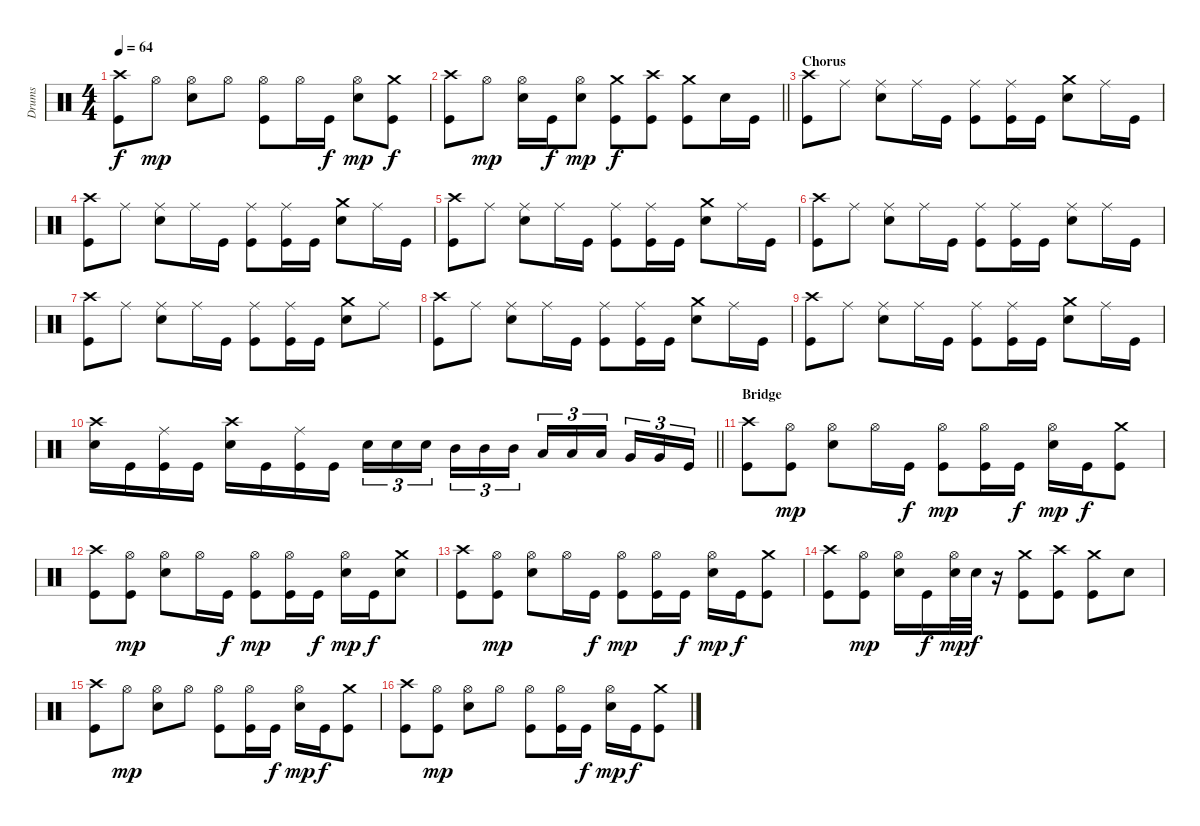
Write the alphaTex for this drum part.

\track ("Drums" "Drums") {instrument percussion}
\staff {score}
\articulation defaults
\ts (4 4)
\tempo 64
\clef neutral
\ks c
("Crash high (hit)" "Kick (hit)").8{dy f} "Hi-Hat (open)".8{dy mp} ("Hi-Hat (open)" "Snare (hit) 2").8 "Hi-Hat (open)".8 ("Hi-Hat (open)" "Kick (hit)").8 "Hi-Hat (open)".16 "Kick (hit)".16{dy f} ("Hi-Hat (open)" "Snare (hit) 2").8{dy mp} ("Crash medium (hit)" "Kick (hit)").8{dy f} |
\barLineRight lightlight
("Crash high (hit)" "Kick (hit)").8 "Hi-Hat (open)".8{dy mp} ("Hi-Hat (open)" "Snare (hit) 2").16 "Kick (hit)".16{dy f} ("Hi-Hat (open)" "Snare (hit) 2").8{dy mp} ("Crash medium (hit)" "Kick (hit)").8{dy f} ("Crash high (hit)" "Kick (hit)").8 ("Crash medium (hit)" "Kick (hit)").8 "Snare (hit) 2".16 "Kick (hit)".16 |
\section ("" "Chorus")
("Crash high (hit)" "Kick (hit)").8 "Ride (middle)".8 ("Ride (middle)" "Snare (hit) 2").8 "Ride (middle)".16 "Kick (hit)".16 ("Ride (middle)" "Kick (hit)").8 ("Ride (middle)" "Kick (hit)").16 "Kick (hit)".16 ("Crash medium (hit)" "Snare (hit) 2").8 "Ride (middle)".16 "Kick (hit)".16 |
("Crash high (hit)" "Kick (hit)").8 "Ride (middle)".8 ("Ride (middle)" "Snare (hit) 2").8 "Ride (middle)".16 "Kick (hit)".16 ("Ride (middle)" "Kick (hit)").8 ("Ride (middle)" "Kick (hit)").16 "Kick (hit)".16 ("Crash medium (hit)" "Snare (hit) 2").8 "Ride (middle)".16 "Kick (hit)".16 |
("Crash high (hit)" "Kick (hit)").8 "Ride (middle)".8 ("Ride (middle)" "Snare (hit) 2").8 "Ride (middle)".16 "Kick (hit)".16 ("Ride (middle)" "Kick (hit)").8 ("Ride (middle)" "Kick (hit)").16 "Kick (hit)".16 ("Crash medium (hit)" "Snare (hit) 2").8 "Ride (middle)".16 "Kick (hit)".16 |
("Crash high (hit)" "Kick (hit)").8 "Ride (middle)".8 ("Ride (middle)" "Snare (hit) 2").8 "Ride (middle)".16 "Kick (hit)".16 ("Ride (middle)" "Kick (hit)").8 ("Ride (middle)" "Kick (hit)").16 "Kick (hit)".16 ("Ride (middle)" "Snare (hit) 2").8 "Ride (middle)".16 "Kick (hit)".16 |
("Crash high (hit)" "Kick (hit)").8 "Ride (middle)".8 ("Ride (middle)" "Snare (hit) 2").8 "Ride (middle)".16 "Kick (hit)".16 ("Ride (middle)" "Kick (hit)").8 ("Ride (middle)" "Kick (hit)").16 "Kick (hit)".16 ("Crash medium (hit)" "Snare (hit) 2").8 "Ride (middle)".8 |
("Crash high (hit)" "Kick (hit)").8 "Ride (middle)".8 ("Ride (middle)" "Snare (hit) 2").8 "Ride (middle)".16 "Kick (hit)".16 ("Ride (middle)" "Kick (hit)").8 ("Ride (middle)" "Kick (hit)").16 "Kick (hit)".16 ("Crash medium (hit)" "Snare (hit) 2").8 "Ride (middle)".16 "Kick (hit)".16 |
("Crash high (hit)" "Kick (hit)").8 "Ride (middle)".8 ("Ride (middle)" "Snare (hit) 2").8 "Ride (middle)".16 "Kick (hit)".16 ("Ride (middle)" "Kick (hit)").8 ("Ride (middle)" "Kick (hit)").16 "Kick (hit)".16 ("Crash medium (hit)" "Snare (hit) 2").8 "Ride (middle)".16 "Kick (hit)".16 |
\barLineRight lightlight
("Crash high (hit)" "Snare (hit) 2").16 "Kick (hit)".16 ("Ride (middle)" "Kick (hit)").16 "Kick (hit)".16 ("Crash high (hit)" "Snare (hit) 2").16 "Kick (hit)".16 ("Ride (middle)" "Kick (hit)").16 "Kick (hit)".16 "Snare (hit) 2".16{tu (3 2)} "Snare (hit) 2".16{tu (3 2)} "Snare (hit) 2".16{tu (3 2)} "Mid Tom (hit)".16{tu (3 2)} "Mid Tom (hit)".16{tu (3 2)} "Mid Tom (hit)".16{tu (3 2)} "Low Tom (hit)".16{tu (3 2)} "Low Tom (hit)".16{tu (3 2)} "Low Tom (hit)".16{tu (3 2)} "Very Low Tom (hit)".16{tu (3 2)} "Very Low Tom (hit)".16{tu (3 2)} "Kick (hit)".16{tu (3 2)} |
\section ("" "Bridge")
("Crash high (hit)" "Kick (hit)").8 ("Hi-Hat (open)" "Kick (hit)").8{dy mp} ("Hi-Hat (open)" "Snare (hit) 2").8 "Hi-Hat (open)".16 "Kick (hit)".16{dy f} ("Hi-Hat (open)" "Kick (hit)").8{dy mp} ("Hi-Hat (open)" "Kick (hit)").16 "Kick (hit)".16{dy f} ("Hi-Hat (open)" "Snare (hit) 2").16{dy mp} "Kick (hit)".16{dy f} ("Crash medium (hit)" "Kick (hit)").8 |
("Crash high (hit)" "Kick (hit)").8 ("Hi-Hat (open)" "Kick (hit)").8{dy mp} ("Hi-Hat (open)" "Snare (hit) 2").8 "Hi-Hat (open)".16 "Kick (hit)".16{dy f} ("Hi-Hat (open)" "Kick (hit)").8{dy mp} ("Hi-Hat (open)" "Kick (hit)").16 "Kick (hit)".16{dy f} ("Hi-Hat (open)" "Snare (hit) 2").16{dy mp} "Kick (hit)".16{dy f} ("Crash medium (hit)" "Snare (hit) 2").8 |
("Crash high (hit)" "Kick (hit)").8 ("Hi-Hat (open)" "Kick (hit)").8{dy mp} ("Hi-Hat (open)" "Snare (hit) 2").8 "Hi-Hat (open)".16 "Kick (hit)".16{dy f} ("Hi-Hat (open)" "Kick (hit)").8{dy mp} ("Hi-Hat (open)" "Kick (hit)").16 "Kick (hit)".16{dy f} ("Hi-Hat (open)" "Snare (hit) 2").16{dy mp} "Kick (hit)".16{dy f} ("Crash medium (hit)" "Kick (hit)").8 |
("Crash high (hit)" "Kick (hit)").8 ("Hi-Hat (open)" "Kick (hit)").8{dy mp} ("Hi-Hat (open)" "Snare (hit) 2").16 "Kick (hit)".16{dy f} ("Hi-Hat (open)" "Snare (hit) 2").32{dy mp} "Snare (hit) 2".32{dy f} r.16 ("Crash medium (hit)" "Kick (hit)").8 ("Crash high (hit)" "Kick (hit)").8 ("Crash medium (hit)" "Kick (hit)").8 "Snare (hit) 2".8 |
("Crash high (hit)" "Kick (hit)").8 "Hi-Hat (open)".8{dy mp} ("Hi-Hat (open)" "Snare (hit) 2").8 "Hi-Hat (open)".8 ("Hi-Hat (open)" "Kick (hit)").8 ("Hi-Hat (open)" "Kick (hit)").16 "Kick (hit)".16{dy f} ("Hi-Hat (open)" "Snare (hit) 2").16{dy mp} "Kick (hit)".16{dy f} ("Crash medium (hit)" "Kick (hit)").8 |
("Crash high (hit)" "Kick (hit)").8 ("Hi-Hat (open)" "Kick (hit)").8{dy mp} ("Hi-Hat (open)" "Snare (hit) 2").8 "Hi-Hat (open)".8 ("Hi-Hat (open)" "Kick (hit)").8 ("Hi-Hat (open)" "Kick (hit)").16 "Kick (hit)".16{dy f} ("Hi-Hat (open)" "Snare (hit) 2").16{dy mp} "Kick (hit)".16{dy f} ("Crash medium (hit)" "Kick (hit)").8
